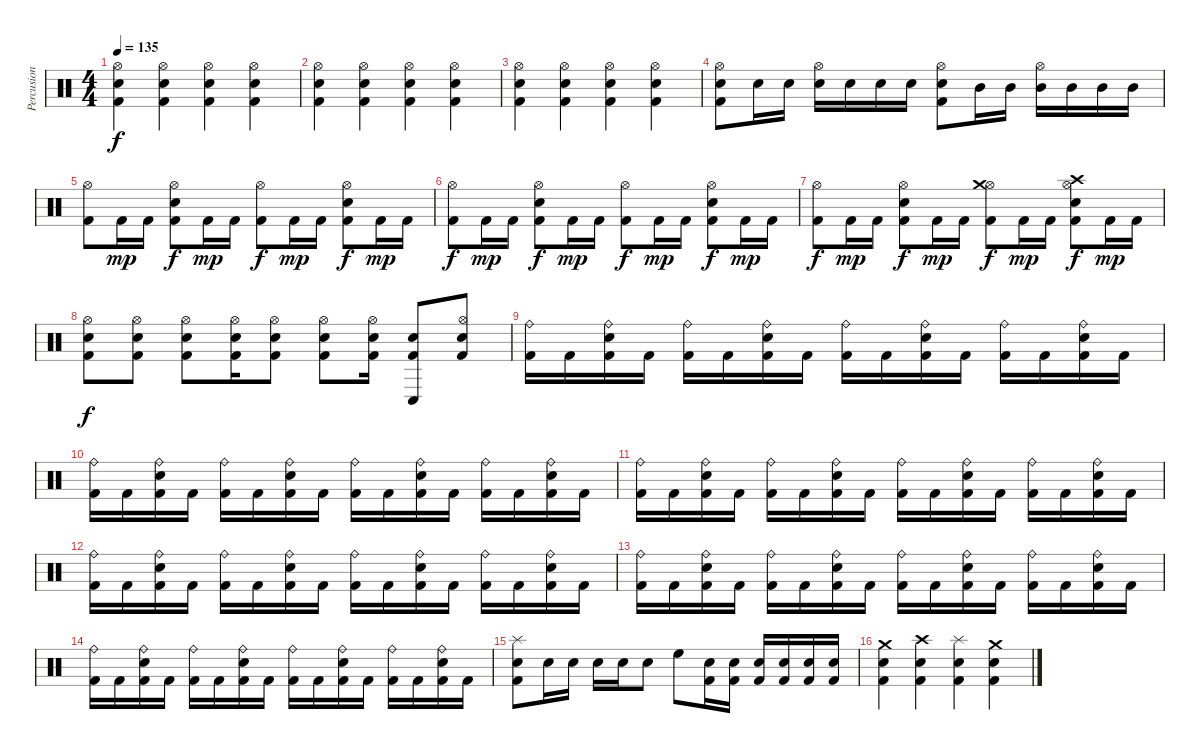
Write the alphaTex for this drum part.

\track ("Percusion" "Percusion") {instrument percussion}
\staff {score}
\articulation defaults
\ts (4 4)
\tempo 135
\clef neutral
\ks c
("Hi-Hat (open)" "Snare (hit) 2" "Kick (hit) 2").4{dy f} ("Hi-Hat (open)" "Snare (hit) 2" "Kick (hit) 2").4 ("Hi-Hat (open)" "Snare (hit) 2" "Kick (hit) 2").4 ("Hi-Hat (open)" "Snare (hit) 2" "Kick (hit) 2").4 |
("Hi-Hat (open)" "Snare (hit) 2" "Kick (hit) 2").4 ("Hi-Hat (open)" "Snare (hit) 2" "Kick (hit) 2").4 ("Hi-Hat (open)" "Snare (hit) 2" "Kick (hit) 2").4 ("Hi-Hat (open)" "Snare (hit) 2" "Kick (hit) 2").4 |
("Hi-Hat (open)" "Snare (hit) 2" "Kick (hit) 2").4 ("Hi-Hat (open)" "Snare (hit) 2" "Kick (hit) 2").4 ("Hi-Hat (open)" "Snare (hit) 2" "Kick (hit) 2").4 ("Hi-Hat (open)" "Snare (hit) 2" "Kick (hit) 2").4 |
("Hi-Hat (open)" "Snare (hit) 2" "Kick (hit) 2").8 "Snare (hit) 2".16 "Snare (hit) 2".16 ("Hi-Hat (open)" "Snare (hit) 2").16 "Snare (hit) 2".16 "Snare (hit) 2".16 "Snare (hit) 2".16 ("Hi-Hat (open)" "Snare (hit) 2" "Kick (hit) 2").8 "Mid Tom (hit)".16 "Mid Tom (hit)".16 ("Hi-Hat (open)" "Mid Tom (hit)").16 "Mid Tom (hit)".16 "Mid Tom (hit)".16 "Mid Tom (hit)".16 |
("Hi-Hat (open)" "Kick (hit) 2").8 "Kick (hit) 2".16{dy mp} "Kick (hit) 2".16 ("Hi-Hat (open)" "Snare (hit) 2" "Kick (hit) 2").8{dy f} "Kick (hit) 2".16{dy mp} "Kick (hit) 2".16 ("Hi-Hat (open)" "Kick (hit) 2").8{dy f} "Kick (hit) 2".16{dy mp} "Kick (hit) 2".16 ("Hi-Hat (open)" "Snare (hit) 2" "Kick (hit) 2").8{dy f} "Kick (hit) 2".16{dy mp} "Kick (hit) 2".16 |
("Hi-Hat (open)" "Kick (hit) 2").8{dy f} "Kick (hit) 2".16{dy mp} "Kick (hit) 2".16 ("Hi-Hat (open)" "Snare (hit) 2" "Kick (hit) 2").8{dy f} "Kick (hit) 2".16{dy mp} "Kick (hit) 2".16 ("Hi-Hat (open)" "Kick (hit) 2").8{dy f} "Kick (hit) 2".16{dy mp} "Kick (hit) 2".16 ("Hi-Hat (open)" "Snare (hit) 2" "Kick (hit) 2").8{dy f} "Kick (hit) 2".16{dy mp} "Kick (hit) 2".16 |
("Hi-Hat (open)" "Kick (hit) 2").8{dy f} "Kick (hit) 2".16{dy mp} "Kick (hit) 2".16 ("Hi-Hat (open)" "Snare (hit) 2" "Kick (hit) 2").8{dy f} "Kick (hit) 2".16{dy mp} "Kick (hit) 2".16 ("Hi-Hat (open)" "Crash medium (hit)" "Kick (hit) 2").8{dy f} "Kick (hit) 2".16{dy mp} "Kick (hit) 2".16 ("Hi-Hat (open)" "Crash high (hit)" "Snare (hit) 2" "Kick (hit) 2").8{dy f} "Kick (hit) 2".16{dy mp} "Kick (hit) 2".16 |
("Hi-Hat (open)" "Snare (hit) 2" "Kick (hit) 2").8{dy f} ("Hi-Hat (open)" "Snare (hit) 2" "Kick (hit) 2").8 ("Hi-Hat (open)" "Snare (hit) 2" "Kick (hit) 2").8 ("Hi-Hat (open)" "Snare (hit) 2" "Kick (hit) 2").16 ("Hi-Hat (open)" "Snare (hit) 2" "Kick (hit) 2").8 ("Hi-Hat (open)" "Snare (hit) 2" "Kick (hit) 2").8 ("Hi-Hat (open)" "Snare (hit) 2" "Kick (hit) 2").16 ("Conga low (hit)" "Snare (hit) 2" "Kick (hit) 2").8 ("Hi-Hat (open)" "Snare (hit) 2" "Kick (hit) 2").8 |
("Ride (bell)" "Kick (hit) 2").16 "Kick (hit) 2".16 ("Ride (bell)" "Snare (hit) 2" "Kick (hit) 2").16 "Kick (hit) 2".16 ("Ride (bell)" "Kick (hit) 2").16 "Kick (hit) 2".16 ("Ride (bell)" "Snare (hit) 2" "Kick (hit) 2").16 "Kick (hit) 2".16 ("Ride (bell)" "Kick (hit) 2").16 "Kick (hit) 2".16 ("Ride (bell)" "Snare (hit) 2" "Kick (hit) 2").16 "Kick (hit) 2".16 ("Ride (bell)" "Kick (hit) 2").16 "Kick (hit) 2".16 ("Ride (bell)" "Snare (hit) 2" "Kick (hit) 2").16 "Kick (hit) 2".16 |
("Ride (bell)" "Kick (hit) 2").16 "Kick (hit) 2".16 ("Ride (bell)" "Snare (hit) 2" "Kick (hit) 2").16 "Kick (hit) 2".16 ("Ride (bell)" "Kick (hit) 2").16 "Kick (hit) 2".16 ("Ride (bell)" "Snare (hit) 2" "Kick (hit) 2").16 "Kick (hit) 2".16 ("Ride (bell)" "Kick (hit) 2").16 "Kick (hit) 2".16 ("Ride (bell)" "Snare (hit) 2" "Kick (hit) 2").16 "Kick (hit) 2".16 ("Ride (bell)" "Kick (hit) 2").16 "Kick (hit) 2".16 ("Ride (bell)" "Snare (hit) 2" "Kick (hit) 2").16 "Kick (hit) 2".16 |
("Ride (bell)" "Kick (hit) 2").16 "Kick (hit) 2".16 ("Ride (bell)" "Snare (hit) 2" "Kick (hit) 2").16 "Kick (hit) 2".16 ("Ride (bell)" "Kick (hit) 2").16 "Kick (hit) 2".16 ("Ride (bell)" "Snare (hit) 2" "Kick (hit) 2").16 "Kick (hit) 2".16 ("Ride (bell)" "Kick (hit) 2").16 "Kick (hit) 2".16 ("Ride (bell)" "Snare (hit) 2" "Kick (hit) 2").16 "Kick (hit) 2".16 ("Ride (bell)" "Kick (hit) 2").16 "Kick (hit) 2".16 ("Ride (bell)" "Snare (hit) 2" "Kick (hit) 2").16 "Kick (hit) 2".16 |
("Ride (bell)" "Kick (hit) 2").16 "Kick (hit) 2".16 ("Ride (bell)" "Snare (hit) 2" "Kick (hit) 2").16 "Kick (hit) 2".16 ("Ride (bell)" "Kick (hit) 2").16 "Kick (hit) 2".16 ("Ride (bell)" "Snare (hit) 2" "Kick (hit) 2").16 "Kick (hit) 2".16 ("Ride (bell)" "Kick (hit) 2").16 "Kick (hit) 2".16 ("Ride (bell)" "Snare (hit) 2" "Kick (hit) 2").16 "Kick (hit) 2".16 ("Ride (bell)" "Kick (hit) 2").16 "Kick (hit) 2".16 ("Ride (bell)" "Snare (hit) 2" "Kick (hit) 2").16 "Kick (hit) 2".16 |
("Ride (bell)" "Kick (hit) 2").16 "Kick (hit) 2".16 ("Ride (bell)" "Snare (hit) 2" "Kick (hit) 2").16 "Kick (hit) 2".16 ("Ride (bell)" "Kick (hit) 2").16 "Kick (hit) 2".16 ("Ride (bell)" "Snare (hit) 2" "Kick (hit) 2").16 "Kick (hit) 2".16 ("Ride (bell)" "Kick (hit) 2").16 "Kick (hit) 2".16 ("Ride (bell)" "Snare (hit) 2" "Kick (hit) 2").16 "Kick (hit) 2".16 ("Ride (bell)" "Kick (hit) 2").16 "Kick (hit) 2".16 ("Ride (bell)" "Snare (hit) 2" "Kick (hit) 2").16 "Kick (hit) 2".16 |
("Ride (bell)" "Kick (hit) 2").16 "Kick (hit) 2".16 ("Ride (bell)" "Snare (hit) 2" "Kick (hit) 2").16 "Kick (hit) 2".16 ("Ride (bell)" "Kick (hit) 2").16 "Kick (hit) 2".16 ("Ride (bell)" "Snare (hit) 2" "Kick (hit) 2").16 "Kick (hit) 2".16 ("Ride (bell)" "Kick (hit) 2").16 "Kick (hit) 2".16 ("Ride (bell)" "Snare (hit) 2" "Kick (hit) 2").16 "Kick (hit) 2".16 ("Ride (bell)" "Kick (hit) 2").16 "Kick (hit) 2".16 ("Ride (bell)" "Snare (hit) 2" "Kick (hit) 2").16 "Kick (hit) 2".16 |
("Splash (hit)" "Snare (hit) 2" "Kick (hit) 2").8 "Snare (hit) 2".16 "Snare (hit) 2".16 "Snare (hit) 2".16 "Snare (hit) 2".16 "Snare (hit) 2".8 "High Floor Tom (hit)".8 ("Snare (hit) 2" "Kick (hit) 2").16 ("Snare (hit) 2" "Kick (hit) 2").16 ("Snare (hit) 2" "Kick (hit) 2").16 ("Snare (hit) 2" "Kick (hit) 2").16 ("Snare (hit) 2" "Kick (hit) 2").16 ("Snare (hit) 2" "Kick (hit) 2").16 |
("Crash medium (hit)" "Snare (hit) 2" "Kick (hit) 2").4 ("Crash high (hit)" "Snare (hit) 2" "Kick (hit) 2").4 ("Splash (hit)" "Snare (hit) 2" "Kick (hit) 2").4 ("Crash medium (hit)" "Snare (hit) 2" "Kick (hit) 2").4
